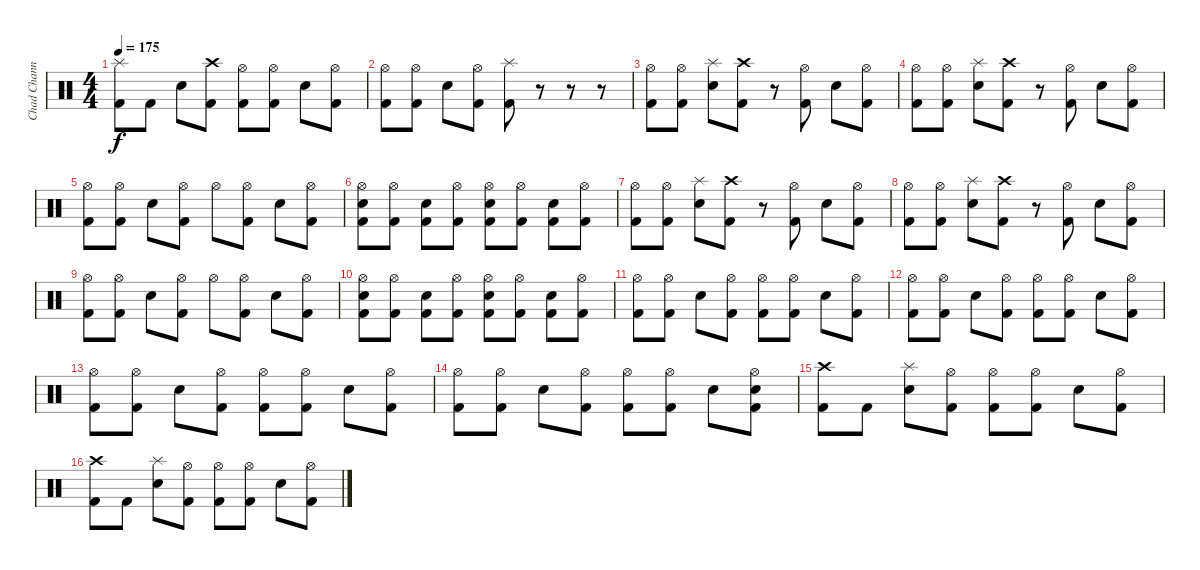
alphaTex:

\track ("Chad Channing" "Chad Chann") {instrument percussion}
\staff {score}
\articulation defaults
\ts (4 4)
\tempo 175
\clef neutral
\ks c
("Splash (hit)" "Kick (hit) 2").8{dy f} "Kick (hit) 2".8 "Snare (hit) 2".8 ("Crash high (hit)" "Kick (hit) 2").8 ("Hi-Hat (open)" "Kick (hit) 2").8 ("Hi-Hat (open)" "Kick (hit) 2").8 "Snare (hit) 2".8 ("Hi-Hat (open)" "Kick (hit) 2").8 |
("Hi-Hat (open)" "Kick (hit) 2").8 ("Hi-Hat (open)" "Kick (hit) 2").8 "Snare (hit) 2".8 ("Hi-Hat (open)" "Kick (hit) 2").8 ("Splash (hit)" "Kick (hit) 2").8 r.8 r.8 r.8 |
("Hi-Hat (open)" "Kick (hit) 2").8 ("Hi-Hat (open)" "Kick (hit) 2").8 ("Splash (hit)" "Snare (hit) 2").8 ("Crash high (hit)" "Kick (hit) 2").8 r.8 ("Hi-Hat (open)" "Kick (hit) 2").8 "Snare (hit) 2".8 ("Hi-Hat (open)" "Kick (hit) 2").8 |
("Hi-Hat (open)" "Kick (hit) 2").8 ("Hi-Hat (open)" "Kick (hit) 2").8 ("Splash (hit)" "Snare (hit) 2").8 ("Crash high (hit)" "Kick (hit) 2").8 r.8 ("Hi-Hat (open)" "Kick (hit) 2").8 "Snare (hit) 2".8 ("Hi-Hat (open)" "Kick (hit) 2").8 |
("Hi-Hat (open)" "Kick (hit) 2").8 ("Hi-Hat (open)" "Kick (hit) 2").8 "Snare (hit) 2".8 ("Hi-Hat (open)" "Kick (hit) 2").8 "Hi-Hat (open)".8 ("Hi-Hat (open)" "Kick (hit) 2").8 "Snare (hit) 2".8 ("Hi-Hat (open)" "Kick (hit) 2").8 |
("Hi-Hat (open)" "Snare (hit) 2" "Kick (hit) 2").8 ("Hi-Hat (open)" "Kick (hit) 2").8 ("Snare (hit) 2" "Kick (hit) 2").8 ("Hi-Hat (open)" "Kick (hit) 2").8 ("Hi-Hat (open)" "Snare (hit) 2" "Kick (hit) 2").8 ("Hi-Hat (open)" "Kick (hit) 2").8 ("Snare (hit) 2" "Kick (hit) 2").8 ("Hi-Hat (open)" "Kick (hit) 2").8 |
("Hi-Hat (open)" "Kick (hit) 2").8 ("Hi-Hat (open)" "Kick (hit) 2").8 ("Splash (hit)" "Snare (hit) 2").8 ("Crash high (hit)" "Kick (hit) 2").8 r.8 ("Hi-Hat (open)" "Kick (hit) 2").8 "Snare (hit) 2".8 ("Hi-Hat (open)" "Kick (hit) 2").8 |
("Hi-Hat (open)" "Kick (hit) 2").8 ("Hi-Hat (open)" "Kick (hit) 2").8 ("Splash (hit)" "Snare (hit) 2").8 ("Crash high (hit)" "Kick (hit) 2").8 r.8 ("Hi-Hat (open)" "Kick (hit) 2").8 "Snare (hit) 2".8 ("Hi-Hat (open)" "Kick (hit) 2").8 |
("Hi-Hat (open)" "Kick (hit) 2").8 ("Hi-Hat (open)" "Kick (hit) 2").8 "Snare (hit) 2".8 ("Hi-Hat (open)" "Kick (hit) 2").8 "Hi-Hat (open)".8 ("Hi-Hat (open)" "Kick (hit) 2").8 "Snare (hit) 2".8 ("Hi-Hat (open)" "Kick (hit) 2").8 |
("Hi-Hat (open)" "Snare (hit) 2" "Kick (hit) 2").8 ("Hi-Hat (open)" "Kick (hit) 2").8 ("Snare (hit) 2" "Kick (hit) 2").8 ("Hi-Hat (open)" "Kick (hit) 2").8 ("Hi-Hat (open)" "Snare (hit) 2" "Kick (hit) 2").8 ("Hi-Hat (open)" "Kick (hit) 2").8 ("Snare (hit) 2" "Kick (hit) 2").8 ("Hi-Hat (open)" "Kick (hit) 2").8 |
("Hi-Hat (open)" "Kick (hit) 2").8 ("Hi-Hat (open)" "Kick (hit) 2").8 "Snare (hit) 2".8 ("Hi-Hat (open)" "Kick (hit) 2").8 ("Hi-Hat (open)" "Kick (hit) 2").8 ("Hi-Hat (open)" "Kick (hit) 2").8 "Snare (hit) 2".8 ("Hi-Hat (open)" "Kick (hit) 2").8 |
("Hi-Hat (open)" "Kick (hit) 2").8 ("Hi-Hat (open)" "Kick (hit) 2").8 "Snare (hit) 2".8 ("Hi-Hat (open)" "Kick (hit) 2").8 ("Hi-Hat (open)" "Kick (hit) 2").8 ("Hi-Hat (open)" "Kick (hit) 2").8 "Snare (hit) 2".8 ("Hi-Hat (open)" "Kick (hit) 2").8 |
("Hi-Hat (open)" "Kick (hit) 2").8 ("Hi-Hat (open)" "Kick (hit) 2").8 "Snare (hit) 2".8 ("Hi-Hat (open)" "Kick (hit) 2").8 ("Hi-Hat (open)" "Kick (hit) 2").8 ("Hi-Hat (open)" "Kick (hit) 2").8 "Snare (hit) 2".8 ("Hi-Hat (open)" "Kick (hit) 2").8 |
("Hi-Hat (open)" "Kick (hit) 2").8 ("Hi-Hat (open)" "Kick (hit) 2").8 "Snare (hit) 2".8 ("Hi-Hat (open)" "Kick (hit) 2").8 ("Hi-Hat (open)" "Kick (hit) 2").8 ("Hi-Hat (open)" "Kick (hit) 2").8 "Snare (hit) 2".8 ("Hi-Hat (open)" "Snare (hit) 2" "Kick (hit) 2").8 |
("Crash high (hit)" "Kick (hit) 2").8 "Kick (hit) 2".8 ("Splash (hit)" "Snare (hit) 2").8 ("Hi-Hat (open)" "Kick (hit) 2").8 ("Hi-Hat (open)" "Kick (hit) 2").8 ("Hi-Hat (open)" "Kick (hit) 2").8 "Snare (hit) 2".8 ("Hi-Hat (open)" "Kick (hit) 2").8 |
("Crash high (hit)" "Kick (hit) 2").8 "Kick (hit) 2".8 ("Splash (hit)" "Snare (hit) 2").8 ("Hi-Hat (open)" "Kick (hit) 2").8 ("Hi-Hat (open)" "Kick (hit) 2").8 ("Hi-Hat (open)" "Kick (hit) 2").8 "Snare (hit) 2".8 ("Hi-Hat (open)" "Kick (hit) 2").8
